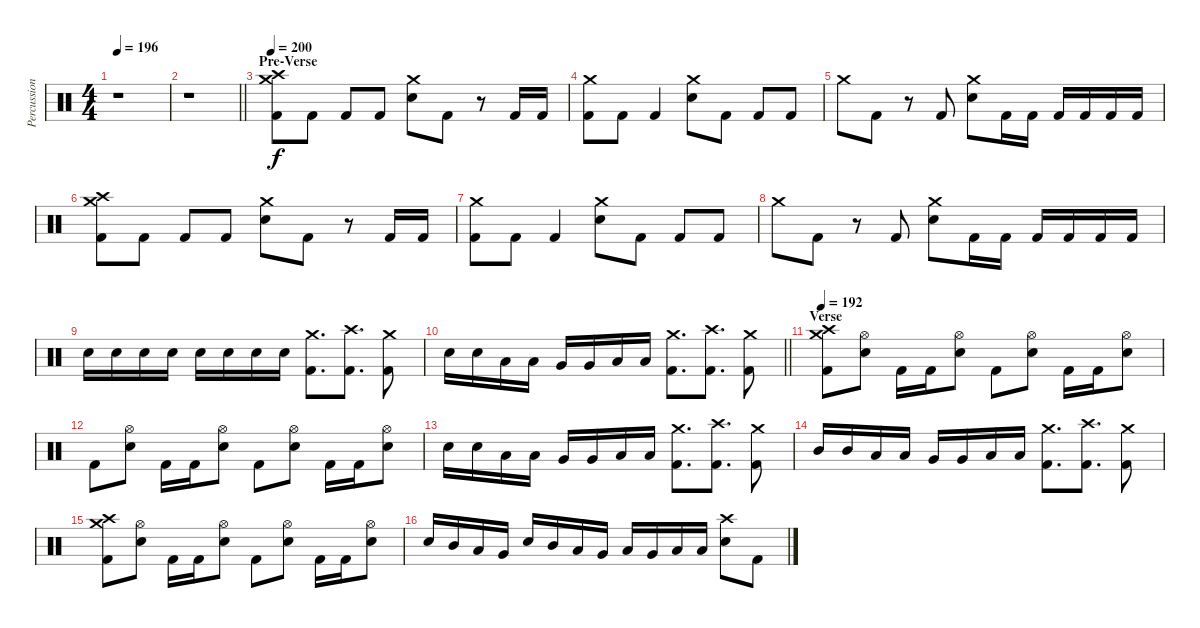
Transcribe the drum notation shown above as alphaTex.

\track ("Percussion" "Percussion") {instrument percussion}
\staff {score}
\articulation defaults
\ts (4 4)
\tempo 196
\clef neutral
\ks c
r.1{dy f} |
\barLineRight lightlight
r.1 |
\section ("" "Pre-Verse")
\tempo 200
("Crash medium (hit)" "Crash high (hit)" "Kick (hit) 2").8{volume 14} "Kick (hit) 2".8 "Kick (hit) 2".8 "Kick (hit) 2".8 ("Crash medium (hit)" "Electric Snare (hit)").8 "Kick (hit) 2".8 r.8 "Kick (hit) 2".16 "Kick (hit) 2".16 |
("Crash medium (hit)" "Kick (hit) 2").8 "Kick (hit) 2".8 "Kick (hit) 2".4 ("Crash medium (hit)" "Electric Snare (hit)").8 "Kick (hit) 2".8 "Kick (hit) 2".8 "Kick (hit) 2".8 |
"Crash medium (hit)".8 "Kick (hit) 2".8 r.8 "Kick (hit) 2".8 ("Crash medium (hit)" "Electric Snare (hit)").8 "Kick (hit) 2".16 "Kick (hit) 2".16 "Kick (hit) 2".16 "Kick (hit) 2".16 "Kick (hit) 2".16 "Kick (hit) 2".16 |
("Crash medium (hit)" "Crash high (hit)" "Kick (hit) 2").8 "Kick (hit) 2".8 "Kick (hit) 2".8 "Kick (hit) 2".8 ("Crash medium (hit)" "Electric Snare (hit)").8 "Kick (hit) 2".8 r.8 "Kick (hit) 2".16 "Kick (hit) 2".16 |
("Crash medium (hit)" "Kick (hit) 2").8 "Kick (hit) 2".8 "Kick (hit) 2".4 ("Crash medium (hit)" "Electric Snare (hit)").8 "Kick (hit) 2".8 "Kick (hit) 2".8 "Kick (hit) 2".8 |
"Crash medium (hit)".8 "Kick (hit) 2".8 r.8 "Kick (hit) 2".8 ("Crash medium (hit)" "Electric Snare (hit)").8 "Kick (hit) 2".16 "Kick (hit) 2".16 "Kick (hit) 2".16 "Kick (hit) 2".16 "Kick (hit) 2".16 "Kick (hit) 2".16 |
"Electric Snare (hit)".16 "Electric Snare (hit)".16 "Electric Snare (hit)".16 "Electric Snare (hit)".16 "Electric Snare (hit)".16 "Electric Snare (hit)".16 "Electric Snare (hit)".16 "Electric Snare (hit)".16 ("Crash medium (hit)" "Kick (hit) 2").8{d} ("Crash high (hit)" "Kick (hit) 2").8{d} ("Crash medium (hit)" "Kick (hit) 2").8 |
\barLineRight lightlight "Electric Snare (hit)".16 "Electric Snare (hit)".16 "Low Tom (hit)".16 "Low Tom (hit)".16 "Very Low Tom (hit)".16 "Very Low Tom (hit)".16 "Low Floor Tom (hit)".16 "Low Floor Tom (hit)".16
("Crash medium (hit)" "Kick (hit) 2").8{d} ("Crash high (hit)" "Kick (hit) 2").8{d} ("Crash medium (hit)" "Kick (hit) 2").8 |
\section ("" "Verse")
\tempo 192
("Crash medium (hit)" "Crash high (hit)" "Kick (hit) 2").8 ("Hi-Hat (open)" "Electric Snare (hit)").8 "Kick (hit) 2".16 "Kick (hit) 2".16 ("Hi-Hat (open)" "Electric Snare (hit)").8 "Kick (hit) 2".8 ("Hi-Hat (open)" "Electric Snare (hit)").8 "Kick (hit) 2".16 "Kick (hit) 2".16 ("Hi-Hat (open)" "Electric Snare (hit)").8 |
"Kick (hit) 2".8 ("Hi-Hat (open)" "Electric Snare (hit)").8 "Kick (hit) 2".16 "Kick (hit) 2".16 ("Hi-Hat (open)" "Electric Snare (hit)").8 "Kick (hit) 2".8 ("Hi-Hat (open)" "Electric Snare (hit)").8 "Kick (hit) 2".16 "Kick (hit) 2".16 ("Hi-Hat (open)" "Electric Snare (hit)").8 |
"Electric Snare (hit)".16 "Electric Snare (hit)".16 "Low Tom (hit)".16 "Low Tom (hit)".16 "Very Low Tom (hit)".16 "Very Low Tom (hit)".16 "Low Floor Tom (hit)".16 "Low Floor Tom (hit)".16 ("Crash medium (hit)" "Kick (hit) 2").8{d} ("Crash high (hit)" "Kick (hit) 2").8{d} ("Crash medium (hit)" "Kick (hit) 2").8 |
"Mid Tom (hit)".16 "Mid Tom (hit)".16 "Low Tom (hit)".16 "Low Tom (hit)".16 "Very Low Tom (hit)".16 "Very Low Tom (hit)".16 "Low Floor Tom (hit)".16 "Low Floor Tom (hit)".16 ("Crash medium (hit)" "Kick (hit) 2").8{d} ("Crash high (hit)" "Kick (hit) 2").8{d} ("Crash medium (hit)" "Kick (hit) 2").8 |
("Crash medium (hit)" "Crash high (hit)" "Kick (hit) 2").8 ("Hi-Hat (open)" "Electric Snare (hit)").8 "Kick (hit) 2".16 "Kick (hit) 2".16 ("Hi-Hat (open)" "Electric Snare (hit)").8 "Kick (hit) 2".8 ("Hi-Hat (open)" "Electric Snare (hit)").8 "Kick (hit) 2".16 "Kick (hit) 2".16 ("Hi-Hat (open)" "Electric Snare (hit)").8 |
"Electric Snare (hit)".16 "Mid Tom (hit)".16 "Low Tom (hit)".16 "Very Low Tom (hit)".16 "Electric Snare (hit)".16 "Mid Tom (hit)".16 "Low Tom (hit)".16 "Very Low Tom (hit)".16 "Low Tom (hit)".16 "Very Low Tom (hit)".16 "Low Floor Tom (hit)".16 "Low Floor Tom (hit)".16 ("Crash high (hit)" "Electric Snare (hit)").8 "Kick (hit) 2".8
